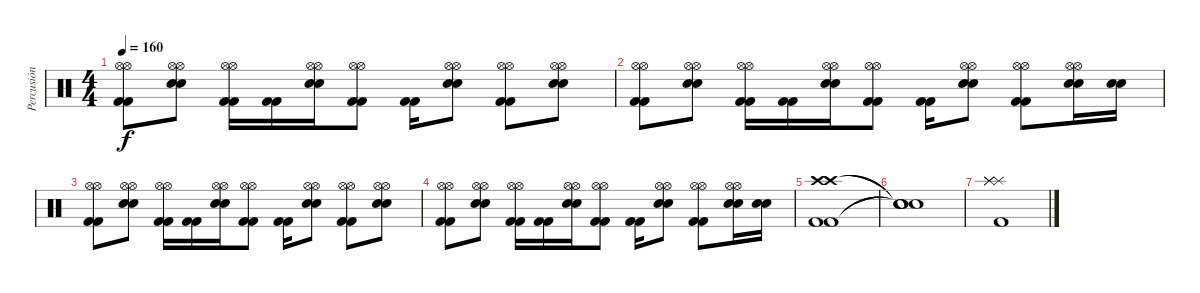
\track ("Percusión" "Percusión") {instrument percussion}
\staff {score}
\articulation defaults
\ts (4 4)
\tempo 160
\clef neutral
\ks c
("Kick (hit) 2" "Kick (hit) 2" "Hi-Hat (open)" "Hi-Hat (open)").8{dy f} ("Snare (hit) 2" "Snare (hit) 2" "Hi-Hat (open)" "Hi-Hat (open)").8 ("Kick (hit) 2" "Kick (hit) 2" "Hi-Hat (open)" "Hi-Hat (open)").16 ("Kick (hit) 2" "Kick (hit) 2").16 ("Snare (hit) 2" "Snare (hit) 2" "Hi-Hat (open)" "Hi-Hat (open)").16 ("Kick (hit) 2" "Kick (hit) 2" "Hi-Hat (open)" "Hi-Hat (open)").8 ("Kick (hit) 2" "Kick (hit) 2").16 ("Snare (hit) 2" "Snare (hit) 2" "Hi-Hat (open)" "Hi-Hat (open)").8 ("Kick (hit) 2" "Kick (hit) 2" "Hi-Hat (open)" "Hi-Hat (open)").8 ("Snare (hit) 2" "Snare (hit) 2" "Hi-Hat (open)" "Hi-Hat (open)").8 |
("Kick (hit) 2" "Kick (hit) 2" "Hi-Hat (open)" "Hi-Hat (open)").8 ("Snare (hit) 2" "Snare (hit) 2" "Hi-Hat (open)" "Hi-Hat (open)").8 ("Kick (hit) 2" "Kick (hit) 2" "Hi-Hat (open)" "Hi-Hat (open)").16 ("Kick (hit) 2" "Kick (hit) 2").16 ("Snare (hit) 2" "Snare (hit) 2" "Hi-Hat (open)" "Hi-Hat (open)").16 ("Kick (hit) 2" "Kick (hit) 2" "Hi-Hat (open)" "Hi-Hat (open)").8 ("Kick (hit) 2" "Kick (hit) 2").16 ("Snare (hit) 2" "Snare (hit) 2" "Hi-Hat (open)" "Hi-Hat (open)").8 ("Kick (hit) 2" "Kick (hit) 2" "Hi-Hat (open)" "Hi-Hat (open)").8 ("Snare (hit) 2" "Snare (hit) 2" "Hi-Hat (open)" "Hi-Hat (open)").16 ("Snare (hit) 2" "Snare (hit) 2").16 |
("Kick (hit) 2" "Kick (hit) 2" "Hi-Hat (open)" "Hi-Hat (open)").8 ("Snare (hit) 2" "Snare (hit) 2" "Hi-Hat (open)" "Hi-Hat (open)").8 ("Kick (hit) 2" "Kick (hit) 2" "Hi-Hat (open)" "Hi-Hat (open)").16 ("Kick (hit) 2" "Kick (hit) 2").16 ("Snare (hit) 2" "Snare (hit) 2" "Hi-Hat (open)" "Hi-Hat (open)").16 ("Kick (hit) 2" "Kick (hit) 2" "Hi-Hat (open)" "Hi-Hat (open)").8 ("Kick (hit) 2" "Kick (hit) 2").16 ("Snare (hit) 2" "Snare (hit) 2" "Hi-Hat (open)" "Hi-Hat (open)").8 ("Kick (hit) 2" "Kick (hit) 2" "Hi-Hat (open)" "Hi-Hat (open)").8 ("Snare (hit) 2" "Snare (hit) 2" "Hi-Hat (open)" "Hi-Hat (open)").8 |
("Kick (hit) 2" "Kick (hit) 2" "Hi-Hat (open)" "Hi-Hat (open)").8 ("Snare (hit) 2" "Snare (hit) 2" "Hi-Hat (open)" "Hi-Hat (open)").8 ("Kick (hit) 2" "Kick (hit) 2" "Hi-Hat (open)" "Hi-Hat (open)").16 ("Kick (hit) 2" "Kick (hit) 2").16 ("Snare (hit) 2" "Snare (hit) 2" "Hi-Hat (open)" "Hi-Hat (open)").16 ("Kick (hit) 2" "Kick (hit) 2" "Hi-Hat (open)" "Hi-Hat (open)").8 ("Kick (hit) 2" "Kick (hit) 2").16 ("Snare (hit) 2" "Snare (hit) 2" "Hi-Hat (open)" "Hi-Hat (open)").8 ("Kick (hit) 2" "Kick (hit) 2" "Hi-Hat (open)" "Hi-Hat (open)").8 ("Snare (hit) 2" "Snare (hit) 2" "Hi-Hat (open)" "Hi-Hat (open)").16 ("Snare (hit) 2" "Snare (hit) 2").16 |
("Crash high (hit)" "Crash high (hit)" "Kick (hit) 2" "Kick (hit) 2").1 |
("Snare (hit)"{t} "Snare (hit)"{t} "Snare (hit)"{t} "Snare (hit)"{t}).1 |
("Splash (hit)" "Splash (hit)" "Splash (hit)" "Kick (hit) 2").1
